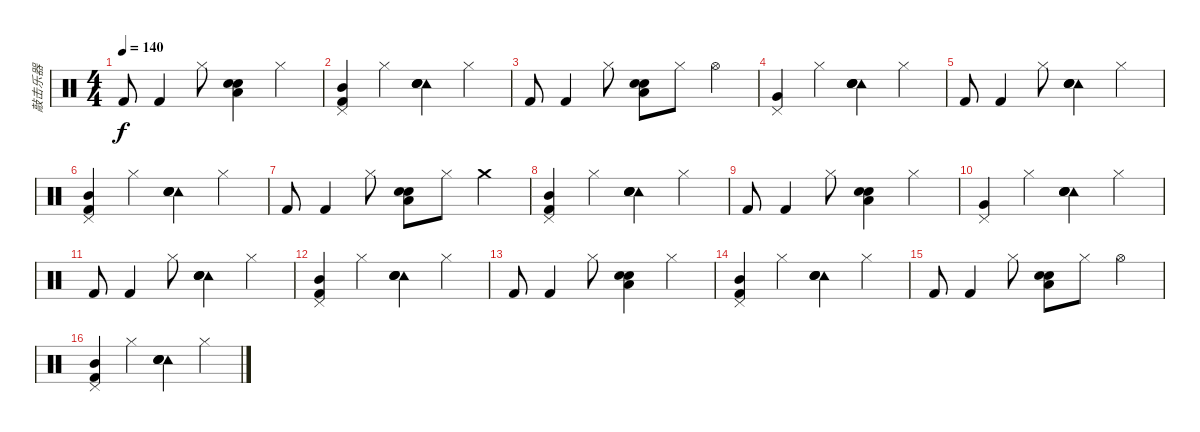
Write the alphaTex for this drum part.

\track ("敲击乐器" "敲击乐器") {instrument percussion bank 3}
\staff {score}
\articulation defaults
\ts (4 4)
\tempo 140
\clef neutral
\ks c "Kick (hit) 2".8{dy f} "Kick (hit) 2".4 "Hi-Hat (closed)".8
("Low Tom (hit)" "Snare (hit) 2" "Hand Clap (hit)").4 "Hi-Hat (closed)".4 |
("Mid Tom (hit)" "Kick (hit) 2" "Pedal Hi-Hat (hit)").4 "Hi-Hat (closed)".4 ("Tambourine (hit)" "Electric Snare (hit)" "Hand Clap (hit)" "Snare (hit) 2").4 "Hi-Hat (closed)".4 |
"Kick (hit) 2".8 "Kick (hit) 2".4 "Hi-Hat (closed)".8 ("Low Tom (hit)" "Snare (hit) 2" "Hand Clap (hit)").8 "Hi-Hat (closed)".8 "Hi-Hat (open)".4 |
("Very Low Tom (hit)" "Pedal Hi-Hat (hit)").4 "Hi-Hat (closed)".4 ("Tambourine (hit)" "Electric Snare (hit)" "Hand Clap (hit)" "Snare (hit) 2").4 "Hi-Hat (closed)".4 |
"Kick (hit) 2".8 "Kick (hit) 2".4 "Hi-Hat (closed)".8 ("Tambourine (hit)" "Electric Snare (hit)" "Snare (hit) 2" "Hand Clap (hit)").4 "Hi-Hat (closed)".4 |
("Mid Tom (hit)" "Kick (hit) 2" "Pedal Hi-Hat (hit)").4 "Hi-Hat (closed)".4 ("Tambourine (hit)" "Electric Snare (hit)" "Hand Clap (hit)" "Snare (hit) 2").4 "Hi-Hat (closed)".4 |
"Kick (hit) 2".8 "Kick (hit) 2".4 "Hi-Hat (closed)".8 ("Low Tom (hit)" "Snare (hit) 2" "Hand Clap (hit)").8 "Hi-Hat (closed)".8 "Crash medium (hit)".4 |
("Mid Tom (hit)" "Kick (hit) 2" "Pedal Hi-Hat (hit)").4 "Hi-Hat (closed)".4 ("Tambourine (hit)" "Electric Snare (hit)" "Hand Clap (hit)" "Snare (hit) 2").4 "Hi-Hat (closed)".4 |
"Kick (hit) 2".8 "Kick (hit) 2".4 "Hi-Hat (closed)".8 ("Low Tom (hit)" "Snare (hit) 2" "Hand Clap (hit)").4 "Hi-Hat (closed)".4 |
("Very Low Tom (hit)" "Pedal Hi-Hat (hit)").4 "Hi-Hat (closed)".4 ("Tambourine (hit)" "Electric Snare (hit)" "Hand Clap (hit)" "Snare (hit) 2").4 "Hi-Hat (closed)".4 |
"Kick (hit) 2".8 "Kick (hit) 2".4 "Hi-Hat (closed)".8 ("Tambourine (hit)" "Electric Snare (hit)" "Snare (hit) 2" "Hand Clap (hit)").4 "Hi-Hat (closed)".4 |
("Mid Tom (hit)" "Kick (hit) 2" "Pedal Hi-Hat (hit)").4 "Hi-Hat (closed)".4 ("Tambourine (hit)" "Electric Snare (hit)" "Hand Clap (hit)" "Snare (hit) 2").4 "Hi-Hat (closed)".4 |
"Kick (hit) 2".8 "Kick (hit) 2".4 "Hi-Hat (closed)".8 ("Low Tom (hit)" "Snare (hit) 2" "Hand Clap (hit)").4 "Hi-Hat (closed)".4 |
("Mid Tom (hit)" "Kick (hit) 2" "Pedal Hi-Hat (hit)").4 "Hi-Hat (closed)".4 ("Tambourine (hit)" "Electric Snare (hit)" "Hand Clap (hit)" "Snare (hit) 2").4 "Hi-Hat (closed)".4 |
"Kick (hit) 2".8 "Kick (hit) 2".4 "Hi-Hat (closed)".8 ("Low Tom (hit)" "Snare (hit) 2" "Hand Clap (hit)").8 "Hi-Hat (closed)".8 "Hi-Hat (open)".4 |
("Mid Tom (hit)" "Kick (hit) 2" "Pedal Hi-Hat (hit)").4 "Hi-Hat (closed)".4 ("Tambourine (hit)" "Electric Snare (hit)" "Hand Clap (hit)" "Snare (hit) 2").4 "Hi-Hat (closed)".4
